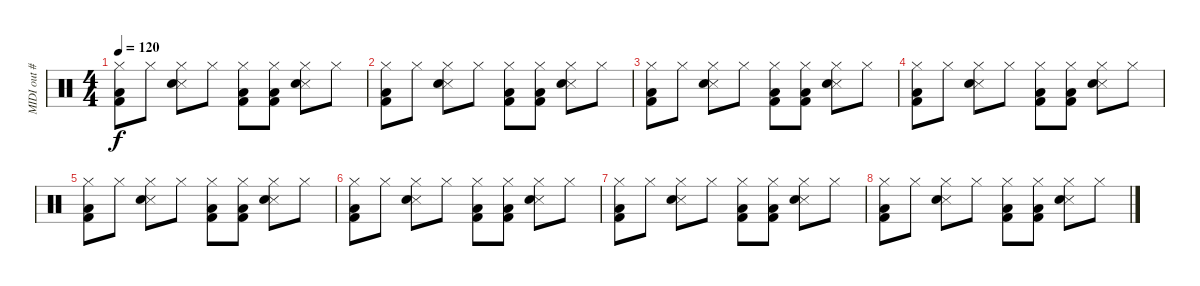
\track ("MIDI out #4" "MIDI out #") {instrument percussion}
\staff {score}
\articulation defaults
\ts (4 4)
\tempo 120
\clef neutral
\ks c
("Hi-Hat (closed)" "Low Tom (hit)" "Kick (hit) 2").8{dy f} "Hi-Hat (closed)".8 ("Hi-Hat (closed)" "Snare (side stick) 3" "Snare (hit) 2").8 "Hi-Hat (closed)".8 ("Hi-Hat (closed)" "Low Tom (hit)" "Kick (hit) 2").8 ("Hi-Hat (closed)" "Low Tom (hit)" "Kick (hit) 2").8 ("Hi-Hat (closed)" "Snare (side stick) 3" "Snare (hit) 2").8 "Hi-Hat (closed)".8 |
("Hi-Hat (closed)" "Low Tom (hit)" "Kick (hit) 2").8 "Hi-Hat (closed)".8 ("Hi-Hat (closed)" "Snare (side stick) 3" "Snare (hit) 2").8 "Hi-Hat (closed)".8 ("Hi-Hat (closed)" "Low Tom (hit)" "Kick (hit) 2").8 ("Hi-Hat (closed)" "Low Tom (hit)" "Kick (hit) 2").8 ("Hi-Hat (closed)" "Snare (side stick) 3" "Snare (hit) 2").8 "Hi-Hat (closed)".8 |
("Hi-Hat (closed)" "Low Tom (hit)" "Kick (hit) 2").8 "Hi-Hat (closed)".8 ("Hi-Hat (closed)" "Snare (side stick) 3" "Snare (hit) 2").8 "Hi-Hat (closed)".8 ("Hi-Hat (closed)" "Low Tom (hit)" "Kick (hit) 2").8 ("Hi-Hat (closed)" "Low Tom (hit)" "Kick (hit) 2").8 ("Hi-Hat (closed)" "Snare (side stick) 3" "Snare (hit) 2").8 "Hi-Hat (closed)".8 |
("Hi-Hat (closed)" "Low Tom (hit)" "Kick (hit) 2").8 "Hi-Hat (closed)".8 ("Hi-Hat (closed)" "Snare (side stick) 3" "Snare (hit) 2").8 "Hi-Hat (closed)".8 ("Hi-Hat (closed)" "Low Tom (hit)" "Kick (hit) 2").8 ("Hi-Hat (closed)" "Low Tom (hit)" "Kick (hit) 2").8 ("Hi-Hat (closed)" "Snare (side stick) 3" "Snare (hit) 2").8 "Hi-Hat (closed)".8 |
("Hi-Hat (closed)" "Low Tom (hit)" "Kick (hit) 2").8 "Hi-Hat (closed)".8 ("Hi-Hat (closed)" "Snare (side stick) 3" "Snare (hit) 2").8 "Hi-Hat (closed)".8 ("Hi-Hat (closed)" "Low Tom (hit)" "Kick (hit) 2").8 ("Hi-Hat (closed)" "Low Tom (hit)" "Kick (hit) 2").8 ("Hi-Hat (closed)" "Snare (side stick) 3" "Snare (hit) 2").8 "Hi-Hat (closed)".8 |
("Hi-Hat (closed)" "Low Tom (hit)" "Kick (hit) 2").8 "Hi-Hat (closed)".8 ("Hi-Hat (closed)" "Snare (side stick) 3" "Snare (hit) 2").8 "Hi-Hat (closed)".8 ("Hi-Hat (closed)" "Low Tom (hit)" "Kick (hit) 2").8 ("Hi-Hat (closed)" "Low Tom (hit)" "Kick (hit) 2").8 ("Hi-Hat (closed)" "Snare (side stick) 3" "Snare (hit) 2").8 "Hi-Hat (closed)".8 |
("Hi-Hat (closed)" "Low Tom (hit)" "Kick (hit) 2").8 "Hi-Hat (closed)".8 ("Hi-Hat (closed)" "Snare (side stick) 3" "Snare (hit) 2").8 "Hi-Hat (closed)".8 ("Hi-Hat (closed)" "Low Tom (hit)" "Kick (hit) 2").8 ("Hi-Hat (closed)" "Low Tom (hit)" "Kick (hit) 2").8 ("Hi-Hat (closed)" "Snare (side stick) 3" "Snare (hit) 2").8 "Hi-Hat (closed)".8 |
("Hi-Hat (closed)" "Low Tom (hit)" "Kick (hit) 2").8 "Hi-Hat (closed)".8 ("Hi-Hat (closed)" "Snare (side stick) 3" "Snare (hit) 2").8 "Hi-Hat (closed)".8 ("Hi-Hat (closed)" "Low Tom (hit)" "Kick (hit) 2").8 ("Hi-Hat (closed)" "Low Tom (hit)" "Kick (hit) 2").8 ("Hi-Hat (closed)" "Snare (side stick) 3" "Snare (hit) 2").8 "Hi-Hat (closed)".8
